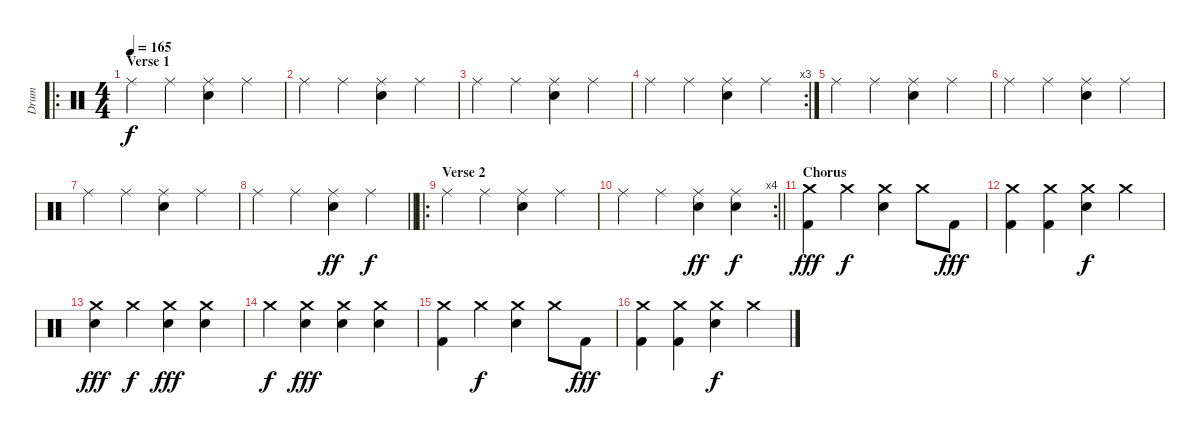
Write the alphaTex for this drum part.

\track ("Drum" "Drum") {instrument percussion}
\staff {score}
\articulation defaults
\ro
\ts (4 4)
\section ("" "Verse 1")
\tempo 165
\clef neutral
\ks c "Ride (middle)".4{dy f} "Ride (middle)".4
("Snare (hit) 2" "Ride (middle)").4 "Ride (middle)".4 |
"Ride (middle)".4 "Ride (middle)".4 ("Snare (hit) 2" "Ride (middle)").4 "Ride (middle)".4 |
"Ride (middle)".4 "Ride (middle)".4 ("Snare (hit) 2" "Ride (middle)").4 "Ride (middle)".4 |
\rc 3 "Ride (middle)".4 "Ride (middle)".4
("Snare (hit) 2" "Ride (middle)").4 "Ride (middle)".4 |
"Ride (middle)".4 "Ride (middle)".4 ("Snare (hit) 2" "Ride (middle)").4 "Ride (middle)".4 |
"Ride (middle)".4 "Ride (middle)".4 ("Snare (hit) 2" "Ride (middle)").4 "Ride (middle)".4 |
"Ride (middle)".4 "Ride (middle)".4 ("Snare (hit) 2" "Ride (middle)").4 "Ride (middle)".4 |
\barLineRight lightlight "Ride (middle)".4 "Ride (middle)".4
("Snare (hit) 2" "Ride (middle)").4{dy ff} "Ride (middle)".4{dy f} |
\ro
\section ("" "Verse 2")
"Ride (middle)".4 "Ride (middle)".4 ("Snare (hit) 2" "Ride (middle)").4 "Ride (middle)".4 |
\rc 4
\barLineRight lightlight "Ride (middle)".4 "Ride (middle)".4
("Snare (hit) 2" "Ride (middle)").4{dy ff} ("Snare (hit) 2" "Ride (middle)").4{dy f} |
\section ("" "Chorus")
("Kick (hit) 2" "Crash medium (hit)").4{dy fff} "Crash medium (hit)".4{dy f} ("Snare (hit) 2" "Crash medium (hit)").4 "Crash medium (hit)".8 "Kick (hit) 2".8{dy fff} |
("Kick (hit) 2" "Crash medium (hit)").4 ("Kick (hit) 2" "Crash medium (hit)").4 ("Snare (hit) 2" "Crash medium (hit)").4{dy f} "Crash medium (hit)".4 |
("Snare (hit) 2" "Crash medium (hit)").4{dy fff} "Crash medium (hit)".4{dy f} ("Snare (hit) 2" "Crash medium (hit)").4{dy fff} ("Snare (hit) 2" "Crash medium (hit)").4 |
"Crash medium (hit)".4{dy f} ("Snare (hit) 2" "Crash medium (hit)").4{dy fff} ("Snare (hit) 2" "Crash medium (hit)").4 ("Snare (hit) 2" "Crash medium (hit)").4 |
("Kick (hit) 2" "Crash medium (hit)").4 "Crash medium (hit)".4{dy f} ("Snare (hit) 2" "Crash medium (hit)").4 "Crash medium (hit)".8 "Kick (hit) 2".8{dy fff} |
("Kick (hit) 2" "Crash medium (hit)").4 ("Kick (hit) 2" "Crash medium (hit)").4 ("Snare (hit) 2" "Crash medium (hit)").4{dy f} "Crash medium (hit)".4
